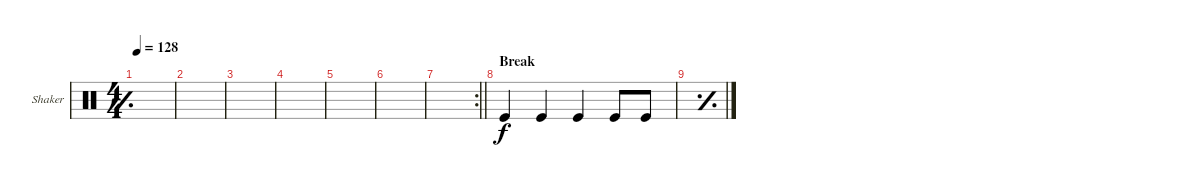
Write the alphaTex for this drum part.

\defaultSystemsLayout 4
\bracketExtendMode groupsimilarinstruments
\firstSystemTrackNameOrientation horizontal
\otherSystemsTrackNameOrientation horizontal
\track ("Shaker" "Shaker") {instrument percussion}
\staff {score}
\articulation defaults
\ts (4 4)
\tempo 128
\clef neutral
\simile simple
\scale
0.311475
\ks c
|
\scale
0.333333 |
\scale
0.333333 |
\scale
0.333333 |
\scale
0.322034 |
\scale
0.322034 |
\rc 2
\scale
0.355932
\barLineRight lightlight
|
\section ("" "Break")
\simile none
\scale
0.333333 "Kick (hit)".4{dy f} "Kick (hit)".4 "Kick (hit)".4 "Kick (hit)".8 "Kick (hit)".8 |
\simile simple
\scale
0.333333 |
\scale
0.333333 |
\scale
0.333333 |
\scale
0.333333 |
\scale
0.333333 |
\scale
0.333333 |
\scale
0.333333 |
\scale
0.333333
